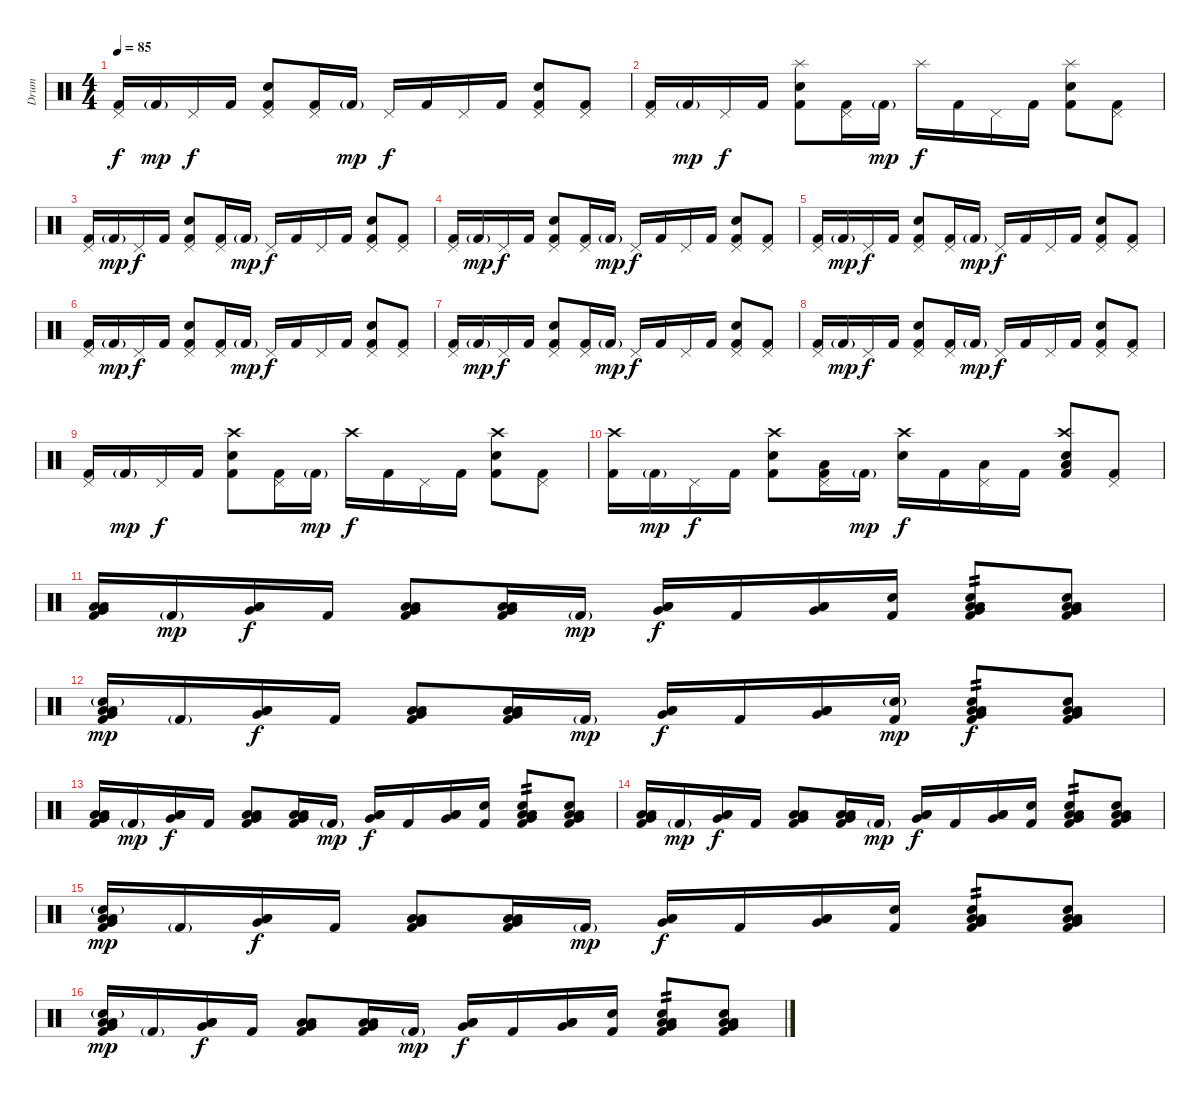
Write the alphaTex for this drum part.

\track ("Drum" "Drum") {instrument percussion}
\staff {score}
\articulation defaults
\ts (4 4)
\tempo 85
\clef neutral
\ks c
("Kick (hit) 2" "Pedal Hi-Hat (hit)").16{dy f} "Kick (hit) 2"{g}.16{dy mp} "Pedal Hi-Hat (hit)".16{dy f} "Kick (hit) 2".16 ("Kick (hit) 2" "Snare (hit) 2" "Pedal Hi-Hat (hit)").8 ("Kick (hit) 2" "Pedal Hi-Hat (hit)").16 "Kick (hit) 2"{g}.16{dy mp} "Pedal Hi-Hat (hit)".16{dy f} "Kick (hit) 2".16 "Pedal Hi-Hat (hit)".16 "Kick (hit) 2".16 ("Kick (hit) 2" "Snare (hit) 2" "Pedal Hi-Hat (hit)").8 ("Kick (hit) 2" "Pedal Hi-Hat (hit)").8 |
("Kick (hit) 2" "Pedal Hi-Hat (hit)").16 "Kick (hit) 2"{g}.16{dy mp} "Pedal Hi-Hat (hit)".16{dy f} "Kick (hit) 2".16 ("Kick (hit) 2" "Snare (hit) 2" "Splash (hit)").8 ("Kick (hit) 2" "Pedal Hi-Hat (hit)").16 "Kick (hit) 2"{g}.16{dy mp} "Splash (hit)".16{dy f} "Kick (hit) 2".16 "Pedal Hi-Hat (hit)".16 "Kick (hit) 2".16 ("Kick (hit) 2" "Snare (hit) 2" "Splash (hit)").8 ("Kick (hit) 2" "Pedal Hi-Hat (hit)").8 |
("Kick (hit) 2" "Pedal Hi-Hat (hit)").16 "Kick (hit) 2"{g}.16{dy mp} "Pedal Hi-Hat (hit)".16{dy f} "Kick (hit) 2".16 ("Kick (hit) 2" "Snare (hit) 2" "Pedal Hi-Hat (hit)").8 ("Kick (hit) 2" "Pedal Hi-Hat (hit)").16 "Kick (hit) 2"{g}.16{dy mp} "Pedal Hi-Hat (hit)".16{dy f} "Kick (hit) 2".16 "Pedal Hi-Hat (hit)".16 "Kick (hit) 2".16 ("Kick (hit) 2" "Snare (hit) 2" "Pedal Hi-Hat (hit)").8 ("Kick (hit) 2" "Pedal Hi-Hat (hit)").8 |
("Kick (hit) 2" "Pedal Hi-Hat (hit)").16 "Kick (hit) 2"{g}.16{dy mp} "Pedal Hi-Hat (hit)".16{dy f} "Kick (hit) 2".16 ("Kick (hit) 2" "Snare (hit) 2" "Pedal Hi-Hat (hit)").8 ("Kick (hit) 2" "Pedal Hi-Hat (hit)").16 "Kick (hit) 2"{g}.16{dy mp} "Pedal Hi-Hat (hit)".16{dy f} "Kick (hit) 2".16 "Pedal Hi-Hat (hit)".16 "Kick (hit) 2".16 ("Kick (hit) 2" "Snare (hit) 2" "Pedal Hi-Hat (hit)").8 ("Kick (hit) 2" "Pedal Hi-Hat (hit)").8 |
("Kick (hit) 2" "Pedal Hi-Hat (hit)").16 "Kick (hit) 2"{g}.16{dy mp} "Pedal Hi-Hat (hit)".16{dy f} "Kick (hit) 2".16 ("Kick (hit) 2" "Snare (hit) 2" "Pedal Hi-Hat (hit)").8 ("Kick (hit) 2" "Pedal Hi-Hat (hit)").16 "Kick (hit) 2"{g}.16{dy mp} "Pedal Hi-Hat (hit)".16{dy f} "Kick (hit) 2".16 "Pedal Hi-Hat (hit)".16 "Kick (hit) 2".16 ("Kick (hit) 2" "Snare (hit) 2" "Pedal Hi-Hat (hit)").8 ("Kick (hit) 2" "Pedal Hi-Hat (hit)").8 |
("Kick (hit) 2" "Pedal Hi-Hat (hit)").16 "Kick (hit) 2"{g}.16{dy mp} "Pedal Hi-Hat (hit)".16{dy f} "Kick (hit) 2".16 ("Kick (hit) 2" "Snare (hit) 2" "Pedal Hi-Hat (hit)").8 ("Kick (hit) 2" "Pedal Hi-Hat (hit)").16 "Kick (hit) 2"{g}.16{dy mp} "Pedal Hi-Hat (hit)".16{dy f} "Kick (hit) 2".16 "Pedal Hi-Hat (hit)".16 "Kick (hit) 2".16 ("Kick (hit) 2" "Snare (hit) 2" "Pedal Hi-Hat (hit)").8 ("Kick (hit) 2" "Pedal Hi-Hat (hit)").8 |
("Kick (hit) 2" "Pedal Hi-Hat (hit)").16 "Kick (hit) 2"{g}.16{dy mp} "Pedal Hi-Hat (hit)".16{dy f} "Kick (hit) 2".16 ("Kick (hit) 2" "Snare (hit) 2" "Pedal Hi-Hat (hit)").8 ("Kick (hit) 2" "Pedal Hi-Hat (hit)").16 "Kick (hit) 2"{g}.16{dy mp} "Pedal Hi-Hat (hit)".16{dy f} "Kick (hit) 2".16 "Pedal Hi-Hat (hit)".16 "Kick (hit) 2".16 ("Kick (hit) 2" "Snare (hit) 2" "Pedal Hi-Hat (hit)").8 ("Kick (hit) 2" "Pedal Hi-Hat (hit)").8 |
("Kick (hit) 2" "Pedal Hi-Hat (hit)").16 "Kick (hit) 2"{g}.16{dy mp} "Pedal Hi-Hat (hit)".16{dy f} "Kick (hit) 2".16 ("Kick (hit) 2" "Snare (hit) 2" "Pedal Hi-Hat (hit)").8 ("Kick (hit) 2" "Pedal Hi-Hat (hit)").16 "Kick (hit) 2"{g}.16{dy mp} "Pedal Hi-Hat (hit)".16{dy f} "Kick (hit) 2".16 "Pedal Hi-Hat (hit)".16 "Kick (hit) 2".16 ("Kick (hit) 2" "Snare (hit) 2" "Pedal Hi-Hat (hit)").8 ("Kick (hit) 2" "Pedal Hi-Hat (hit)").8 |
("Kick (hit) 2" "Pedal Hi-Hat (hit)").16 "Kick (hit) 2"{g}.16{dy mp} "Pedal Hi-Hat (hit)".16{dy f} "Kick (hit) 2".16 ("Kick (hit) 2" "Snare (hit) 2" "Crash high (hit)").8 ("Kick (hit) 2" "Pedal Hi-Hat (hit)").16 "Kick (hit) 2"{g}.16{dy mp} "Crash high (hit)".16{dy f} "Kick (hit) 2".16 "Pedal Hi-Hat (hit)".16 "Kick (hit) 2".16 ("Kick (hit) 2" "Snare (hit) 2" "Crash high (hit)").8 ("Kick (hit) 2" "Pedal Hi-Hat (hit)").8 |
("Kick (hit) 2" "Crash high (hit)").16 "Kick (hit) 2"{g}.16{dy mp} "Pedal Hi-Hat (hit)".16{dy f} "Kick (hit) 2".16 ("Kick (hit) 2" "Snare (hit) 2" "Crash high (hit)").8 ("Kick (hit) 2" "Low Floor Tom (hit)" "Pedal Hi-Hat (hit)").16 "Kick (hit) 2"{g}.16{dy mp} ("Snare (hit) 2" "Crash high (hit)").16{dy f} "Kick (hit) 2".16 ("Low Floor Tom (hit)" "Pedal Hi-Hat (hit)").16 "Kick (hit) 2".16 ("Kick (hit) 2" "Snare (hit) 2" "Low Floor Tom (hit)" "Crash high (hit)").8 ("Kick (hit) 2" "Pedal Hi-Hat (hit)").8 |
("Kick (hit) 2" "Low Floor Tom (hit)" "Low Tom (hit)" "Very Low Tom (hit)").16 "Kick (hit) 2"{g}.16{dy mp} ("Low Floor Tom (hit)" "Low Tom (hit)" "Very Low Tom (hit)").16{dy f} "Kick (hit) 2".16 ("Kick (hit) 2" "Low Floor Tom (hit)" "Low Tom (hit)" "Very Low Tom (hit)").8 ("Kick (hit) 2" "Low Floor Tom (hit)" "Low Tom (hit)" "Very Low Tom (hit)").16 "Kick (hit) 2"{g}.16{dy mp} ("Low Floor Tom (hit)" "Low Tom (hit)" "Very Low Tom (hit)").16{dy f} "Kick (hit) 2".16 ("Low Floor Tom (hit)" "Low Tom (hit)" "Very Low Tom (hit)").16 ("Kick (hit) 2" "Snare (hit) 2").16 ("Kick (hit) 2" "Snare (hit) 2" "Low Floor Tom (hit)" "Low Tom (hit)" "Very Low Tom (hit)").8{tp 2} ("Kick (hit) 2" "Snare (hit) 2" "Low Floor Tom (hit)" "Low Tom (hit)" "Very Low Tom (hit)").8 |
("Kick (hit) 2" "Snare (hit) 2"{g} "Low Floor Tom (hit)" "Low Tom (hit)" "Very Low Tom (hit)").16{dy mp} "Kick (hit) 2"{g}.16 ("Low Floor Tom (hit)" "Low Tom (hit)" "Very Low Tom (hit)").16{dy f} "Kick (hit) 2".16 ("Kick (hit) 2" "Low Floor Tom (hit)" "Low Tom (hit)" "Very Low Tom (hit)").8 ("Kick (hit) 2" "Low Floor Tom (hit)" "Low Tom (hit)" "Very Low Tom (hit)").16 "Kick (hit) 2"{g}.16{dy mp} ("Low Floor Tom (hit)" "Low Tom (hit)" "Very Low Tom (hit)").16{dy f} "Kick (hit) 2".16 ("Low Floor Tom (hit)" "Low Tom (hit)" "Very Low Tom (hit)").16 ("Kick (hit) 2" "Snare (hit) 2"{g}).16{dy mp} ("Kick (hit) 2" "Snare (hit) 2" "Low Floor Tom (hit)" "Low Tom (hit)" "Very Low Tom (hit)").8{tp 2 dy f} ("Kick (hit) 2" "Snare (hit) 2" "Low Floor Tom (hit)" "Low Tom (hit)" "Very Low Tom (hit)").8 |
("Kick (hit) 2" "Low Floor Tom (hit)" "Low Tom (hit)" "Very Low Tom (hit)").16 "Kick (hit) 2"{g}.16{dy mp} ("Low Floor Tom (hit)" "Low Tom (hit)" "Very Low Tom (hit)").16{dy f} "Kick (hit) 2".16 ("Kick (hit) 2" "Low Floor Tom (hit)" "Low Tom (hit)" "Very Low Tom (hit)").8 ("Kick (hit) 2" "Low Floor Tom (hit)" "Low Tom (hit)" "Very Low Tom (hit)").16 "Kick (hit) 2"{g}.16{dy mp} ("Low Floor Tom (hit)" "Low Tom (hit)" "Very Low Tom (hit)").16{dy f} "Kick (hit) 2".16 ("Low Floor Tom (hit)" "Low Tom (hit)" "Very Low Tom (hit)").16 ("Kick (hit) 2" "Snare (hit) 2").16 ("Kick (hit) 2" "Snare (hit) 2" "Low Floor Tom (hit)" "Low Tom (hit)" "Very Low Tom (hit)").8{tp 2} ("Kick (hit) 2" "Snare (hit) 2" "Low Floor Tom (hit)" "Low Tom (hit)" "Very Low Tom (hit)").8 |
("Kick (hit) 2" "Low Floor Tom (hit)" "Low Tom (hit)" "Very Low Tom (hit)").16 "Kick (hit) 2"{g}.16{dy mp} ("Low Floor Tom (hit)" "Low Tom (hit)" "Very Low Tom (hit)").16{dy f} "Kick (hit) 2".16 ("Kick (hit) 2" "Low Floor Tom (hit)" "Low Tom (hit)" "Very Low Tom (hit)").8 ("Kick (hit) 2" "Low Floor Tom (hit)" "Low Tom (hit)" "Very Low Tom (hit)").16 "Kick (hit) 2"{g}.16{dy mp} ("Low Floor Tom (hit)" "Low Tom (hit)" "Very Low Tom (hit)").16{dy f} "Kick (hit) 2".16 ("Low Floor Tom (hit)" "Low Tom (hit)" "Very Low Tom (hit)").16 ("Kick (hit) 2" "Snare (hit) 2").16 ("Kick (hit) 2" "Snare (hit) 2" "Low Floor Tom (hit)" "Low Tom (hit)" "Very Low Tom (hit)").8{tp 2} ("Kick (hit) 2" "Snare (hit) 2" "Low Floor Tom (hit)" "Low Tom (hit)" "Very Low Tom (hit)").8 |
("Kick (hit) 2" "Snare (hit) 2"{g} "Low Floor Tom (hit)" "Low Tom (hit)" "Very Low Tom (hit)").16{dy mp} "Kick (hit) 2"{g}.16 ("Low Floor Tom (hit)" "Low Tom (hit)" "Very Low Tom (hit)").16{dy f} "Kick (hit) 2".16 ("Kick (hit) 2" "Low Floor Tom (hit)" "Low Tom (hit)" "Very Low Tom (hit)").8 ("Kick (hit) 2" "Low Floor Tom (hit)" "Low Tom (hit)" "Very Low Tom (hit)").16 "Kick (hit) 2"{g}.16{dy mp} ("Low Floor Tom (hit)" "Low Tom (hit)" "Very Low Tom (hit)").16{dy f} "Kick (hit) 2".16 ("Low Floor Tom (hit)" "Low Tom (hit)" "Very Low Tom (hit)").16 ("Kick (hit) 2" "Snare (hit) 2").16 ("Kick (hit) 2" "Snare (hit) 2" "Low Floor Tom (hit)" "Low Tom (hit)" "Very Low Tom (hit)").8{tp 2} ("Kick (hit) 2" "Snare (hit) 2" "Low Floor Tom (hit)" "Low Tom (hit)" "Very Low Tom (hit)").8 |
("Kick (hit) 2" "Snare (hit) 2"{g} "Low Floor Tom (hit)" "Low Tom (hit)" "Very Low Tom (hit)").16{dy mp} "Kick (hit) 2"{g}.16 ("Low Floor Tom (hit)" "Low Tom (hit)" "Very Low Tom (hit)").16{dy f} "Kick (hit) 2".16 ("Kick (hit) 2" "Low Floor Tom (hit)" "Low Tom (hit)" "Very Low Tom (hit)").8 ("Kick (hit) 2" "Low Floor Tom (hit)" "Low Tom (hit)" "Very Low Tom (hit)").16 "Kick (hit) 2"{g}.16{dy mp} ("Low Floor Tom (hit)" "Low Tom (hit)" "Very Low Tom (hit)").16{dy f} "Kick (hit) 2".16 ("Low Floor Tom (hit)" "Low Tom (hit)" "Very Low Tom (hit)").16 ("Kick (hit) 2" "Snare (hit) 2").16 ("Kick (hit) 2" "Snare (hit) 2" "Low Floor Tom (hit)" "Low Tom (hit)" "Very Low Tom (hit)").8{tp 2} ("Kick (hit) 2" "Snare (hit) 2" "Low Floor Tom (hit)" "Low Tom (hit)" "Very Low Tom (hit)").8
